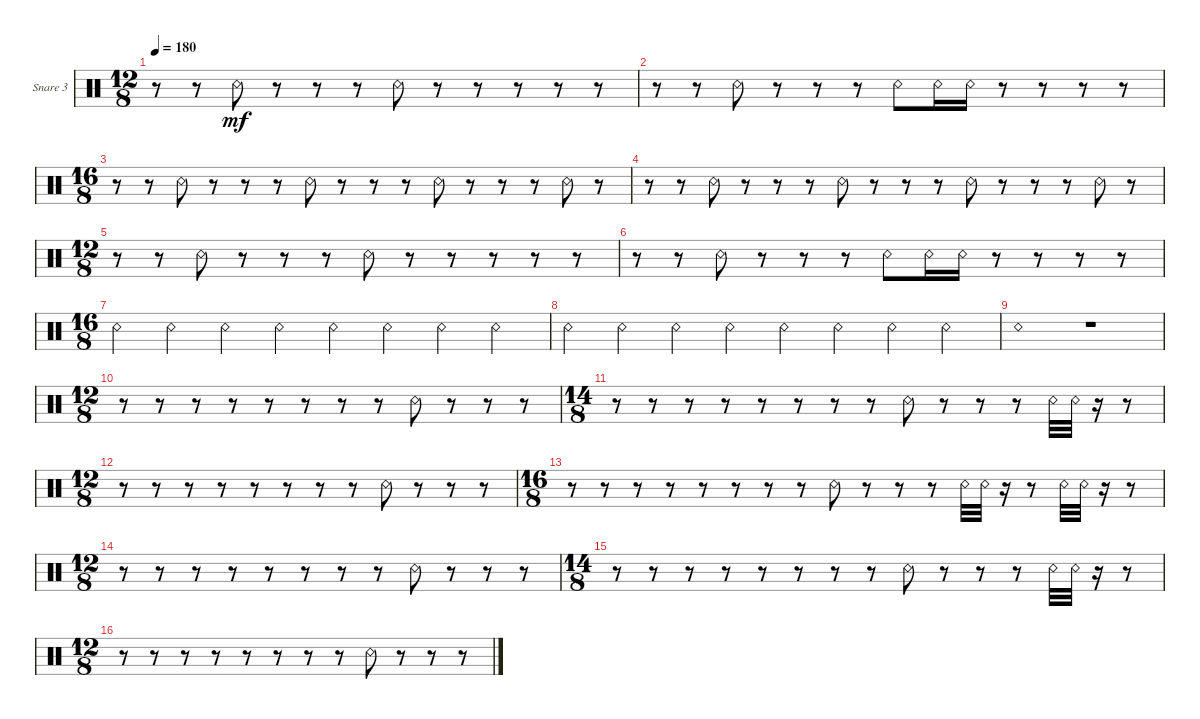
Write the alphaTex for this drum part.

\defaultSystemsLayout 4
\bracketExtendMode groupsimilarinstruments
\firstSystemTrackNameOrientation horizontal
\otherSystemsTrackNameOrientation horizontal
\track ("Snare 3" "Snare 3") {instrument percussion}
\staff {score}
\articulation defaults
\ts (12 8)
\tempo 180
\clef neutral
\ks c
r.8{dy mf} r.8 "Snare (rim shot)".8 r.8 r.8 r.8 "Snare (rim shot)".8 r.8 r.8 r.8 r.8 r.8 |
r.8 r.8 "Snare (rim shot)".8 r.8 r.8 r.8 "Snare (rim shot)".8 "Snare (rim shot)".16 "Snare (rim shot)".16 r.8 r.8 r.8 r.8 |
\ts (16 8)
\beaming (8 2 2 2 2 2 2 2 1 1)
r.8 r.8 "Snare (rim shot)".8 r.8 r.8 r.8 "Snare (rim shot)".8 r.8 r.8 r.8 "Snare (rim shot)".8 r.8 r.8 r.8 "Snare (rim shot)".8 r.8 |
r.8 r.8 "Snare (rim shot)".8 r.8 r.8 r.8 "Snare (rim shot)".8 r.8 r.8 r.8 "Snare (rim shot)".8 r.8 r.8 r.8 "Snare (rim shot)".8 r.8 |
\ts (12 8)
r.8 r.8 "Snare (rim shot)".8 r.8 r.8 r.8 "Snare (rim shot)".8 r.8 r.8 r.8 r.8 r.8 |
r.8 r.8 "Snare (rim shot)".8 r.8 r.8 r.8 "Snare (rim shot)".8 "Snare (rim shot)".16 "Snare (rim shot)".16 r.8 r.8 r.8 r.8 |
\ts (16 8)
"Snare (rim shot)".4 "Snare (rim shot)".4 "Snare (rim shot)".4 "Snare (rim shot)".4 "Snare (rim shot)".4 "Snare (rim shot)".4 "Snare (rim shot)".4 "Snare (rim shot)".4 |
"Snare (rim shot)".4 "Snare (rim shot)".4 "Snare (rim shot)".4 "Snare (rim shot)".4 "Snare (rim shot)".4 "Snare (rim shot)".4 "Snare (rim shot)".4 "Snare (rim shot)".4 |
"Snare (rim shot)".1 r.1 |
\ts (12 8)
r.8 r.8 r.8 r.8 r.8 r.8 r.8 r.8 "Snare (rim shot)".8 r.8 r.8 r.8 |
\ts (14 8)
r.8 r.8 r.8 r.8 r.8 r.8 r.8 r.8 "Snare (rim shot)".8 r.8 r.8 r.8 "Snare (rim shot)".32 "Snare (rim shot)".32 r.16 r.8 |
\ts (12 8)
r.8 r.8 r.8 r.8 r.8 r.8 r.8 r.8 "Snare (rim shot)".8 r.8 r.8 r.8 |
\ts (16 8)
r.8 r.8 r.8 r.8 r.8 r.8 r.8 r.8 "Snare (rim shot)".8 r.8 r.8 r.8 "Snare (rim shot)".32 "Snare (rim shot)".32 r.16 r.8 "Snare (rim shot)".32 "Snare (rim shot)".32 r.16 r.8 |
\ts (12 8)
r.8 r.8 r.8 r.8 r.8 r.8 r.8 r.8 "Snare (rim shot)".8 r.8 r.8 r.8 |
\ts (14 8)
r.8 r.8 r.8 r.8 r.8 r.8 r.8 r.8 "Snare (rim shot)".8 r.8 r.8 r.8 "Snare (rim shot)".32 "Snare (rim shot)".32 r.16 r.8 |
\ts (12 8)
r.8 r.8 r.8 r.8 r.8 r.8 r.8 r.8 "Snare (rim shot)".8 r.8 r.8 r.8
